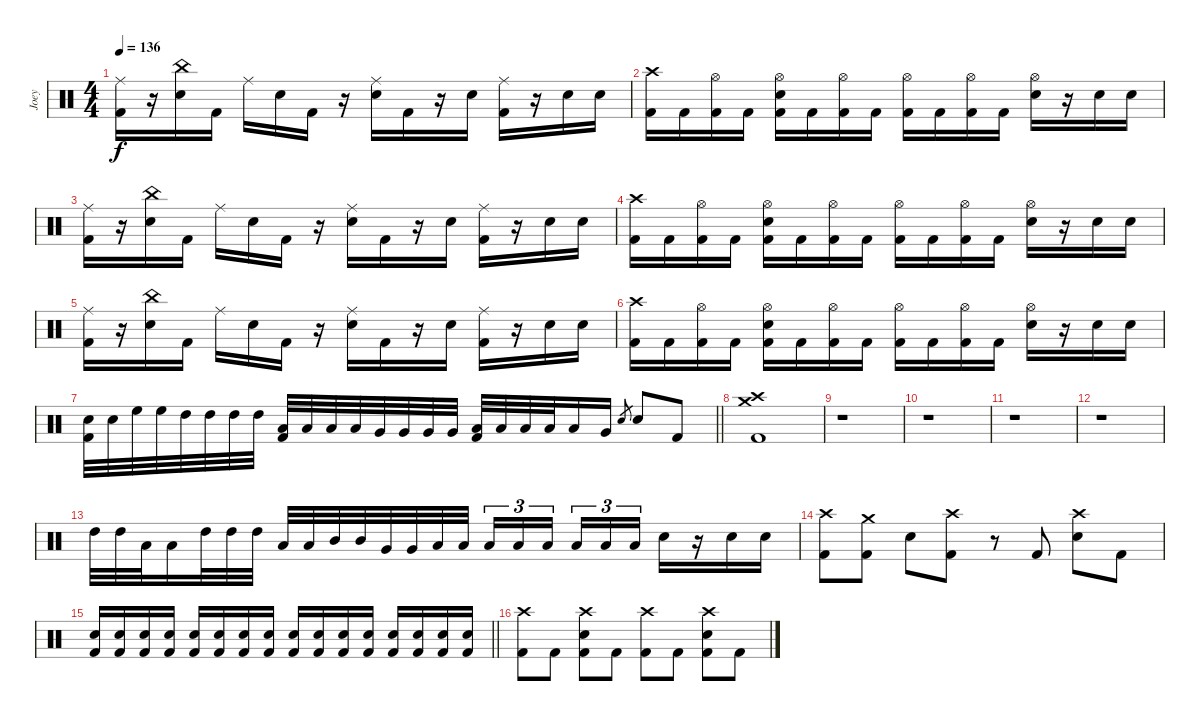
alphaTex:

\track ("Joey" "Joey") {instrument percussion}
\staff {score}
\articulation defaults
\ts (4 4)
\tempo 136
\clef neutral
\ks c
("Ride (middle)" "Kick (hit) 2").16{dy f} r.16 ("China (hit)" "Snare (hit) 2").16 "Kick (hit) 2".16 "Ride (middle)".16 "Snare (hit) 2".16 "Kick (hit) 2".16 r.16 ("Ride (middle)" "Snare (hit) 2").16 "Kick (hit) 2".16 r.16 "Snare (hit) 2".16 ("Ride (middle)" "Kick (hit) 2").16 r.16 "Snare (hit) 2".16 "Snare (hit) 2".16 |
("Crash high (hit)" "Kick (hit) 2").16 "Kick (hit) 2".16 ("Hi-Hat (open)" "Kick (hit) 2").16 "Kick (hit) 2".16 ("Hi-Hat (open)" "Snare (hit) 2" "Kick (hit) 2").16 "Kick (hit) 2".16 ("Hi-Hat (open)" "Kick (hit) 2").16 "Kick (hit) 2".16 ("Hi-Hat (open)" "Kick (hit) 2").16 "Kick (hit) 2".16 ("Hi-Hat (open)" "Kick (hit) 2").16 "Kick (hit) 2".16 ("Hi-Hat (open)" "Snare (hit) 2").16 r.16 "Snare (hit) 2".16 "Snare (hit) 2".16 |
("Ride (middle)" "Kick (hit) 2").16 r.16 ("China (hit)" "Snare (hit) 2").16 "Kick (hit) 2".16 "Ride (middle)".16 "Snare (hit) 2".16 "Kick (hit) 2".16 r.16 ("Ride (middle)" "Snare (hit) 2").16 "Kick (hit) 2".16 r.16 "Snare (hit) 2".16 ("Ride (middle)" "Kick (hit) 2").16 r.16 "Snare (hit) 2".16 "Snare (hit) 2".16 |
("Crash high (hit)" "Kick (hit) 2").16 "Kick (hit) 2".16 ("Hi-Hat (open)" "Kick (hit) 2").16 "Kick (hit) 2".16 ("Hi-Hat (open)" "Snare (hit) 2" "Kick (hit) 2").16 "Kick (hit) 2".16 ("Hi-Hat (open)" "Kick (hit) 2").16 "Kick (hit) 2".16 ("Hi-Hat (open)" "Kick (hit) 2").16 "Kick (hit) 2".16 ("Hi-Hat (open)" "Kick (hit) 2").16 "Kick (hit) 2".16 ("Hi-Hat (open)" "Snare (hit) 2").16 r.16 "Snare (hit) 2".16 "Snare (hit) 2".16 |
("Ride (middle)" "Kick (hit) 2").16 r.16 ("China (hit)" "Snare (hit) 2").16 "Kick (hit) 2".16 "Ride (middle)".16 "Snare (hit) 2".16 "Kick (hit) 2".16 r.16 ("Ride (middle)" "Snare (hit) 2").16 "Kick (hit) 2".16 r.16 "Snare (hit) 2".16 ("Ride (middle)" "Kick (hit) 2").16 r.16 "Snare (hit) 2".16 "Snare (hit) 2".16 |
("Crash high (hit)" "Kick (hit) 2").16 "Kick (hit) 2".16 ("Hi-Hat (open)" "Kick (hit) 2").16 "Kick (hit) 2".16 ("Hi-Hat (open)" "Snare (hit) 2" "Kick (hit) 2").16 "Kick (hit) 2".16 ("Hi-Hat (open)" "Kick (hit) 2").16 "Kick (hit) 2".16 ("Hi-Hat (open)" "Kick (hit) 2").16 "Kick (hit) 2".16 ("Hi-Hat (open)" "Kick (hit) 2").16 "Kick (hit) 2".16 ("Hi-Hat (open)" "Snare (hit) 2").16 r.16 "Snare (hit) 2".16 "Snare (hit) 2".16 |
\barLineRight lightlight
("Snare (hit) 2" "Kick (hit) 2").32 "Snare (hit) 2".32 "High Floor Tom (hit)".32 "High Floor Tom (hit)".32 "High Tom (hit)".32 "High Tom (hit)".32 "High Tom (hit)".32 "High Tom (hit)".32 ("Low Tom (hit)" "Kick (hit) 2").32 "Low Tom (hit)".32 "Low Tom (hit)".32 "Low Tom (hit)".32 "Very Low Tom (hit)".32 "Very Low Tom (hit)".32 "Very Low Tom (hit)".32 "Very Low Tom (hit)".32 ("Low Floor Tom (hit)" "Kick (hit) 2").32 "Low Floor Tom (hit)".32 "Low Floor Tom (hit)".32 "Low Floor Tom (hit)".32 "Low Floor Tom (hit)".16 "Very Low Tom (hit)".16 "Snare (hit) 2".8{gr} "Snare (hit) 2".8 "Kick (hit) 2".8 |
("Crash medium (hit)" "Crash high (hit)" "Kick (hit) 2").1 |
r.1 |
r.1 |
r.1 |
r.1 |
"High Tom (hit)".32 "High Tom (hit)".32 "Low Tom (hit)".32 "Low Tom (hit)".16 "High Tom (hit)".32 "High Tom (hit)".32 "High Tom (hit)".32 "Low Tom (hit)".32 "Low Tom (hit)".32 "Mid Tom (hit)".32 "Mid Tom (hit)".32 "Very Low Tom (hit)".32 "Very Low Tom (hit)".32 "Low Tom (hit)".32 "Low Tom (hit)".32 "Low Floor Tom (hit)".16{tu (3 2)} "Low Floor Tom (hit)".16{tu (3 2)} "Low Floor Tom (hit)".16{tu (3 2) beam splitsecondary} "Low Floor Tom (hit)".16{tu (3 2)} "Low Floor Tom (hit)".16{tu (3 2)} "Low Floor Tom (hit)".16{tu (3 2)} "Snare (hit) 2".16 r.16 "Snare (hit) 2".16 "Snare (hit) 2".16 |
("Crash high (hit)" "Kick (hit) 2").8 ("Crash medium (hit)" "Kick (hit) 2").8 "Snare (hit) 2".8 ("Crash high (hit)" "Kick (hit) 2").8 r.8 "Kick (hit) 2".8 ("Crash high (hit)" "Snare (hit) 2").8 "Kick (hit) 2".8 |
\barLineRight lightlight
("Snare (hit) 2" "Kick (hit) 2").16 ("Snare (hit) 2" "Kick (hit) 2").16 ("Snare (hit) 2" "Kick (hit) 2").16 ("Snare (hit) 2" "Kick (hit) 2").16 ("Snare (hit) 2" "Kick (hit) 2").16 ("Snare (hit) 2" "Kick (hit) 2").16 ("Snare (hit) 2" "Kick (hit) 2").16 ("Snare (hit) 2" "Kick (hit) 2").16 ("Snare (hit) 2" "Kick (hit) 2").16 ("Snare (hit) 2" "Kick (hit) 2").16 ("Snare (hit) 2" "Kick (hit) 2").16 ("Snare (hit) 2" "Kick (hit) 2").16 ("Snare (hit) 2" "Kick (hit) 2").16 ("Snare (hit) 2" "Kick (hit) 2").16 ("Snare (hit) 2" "Kick (hit) 2").16 ("Snare (hit) 2" "Kick (hit) 2").16 |
("Crash high (hit)" "Kick (hit) 2").8 "Kick (hit) 2".8 ("Crash high (hit)" "Snare (hit) 2" "Kick (hit) 2").8 "Kick (hit) 2".8 ("Crash high (hit)" "Kick (hit) 2").8 "Kick (hit) 2".8 ("Crash high (hit)" "Snare (hit) 2" "Kick (hit) 2").8 "Kick (hit) 2".8
